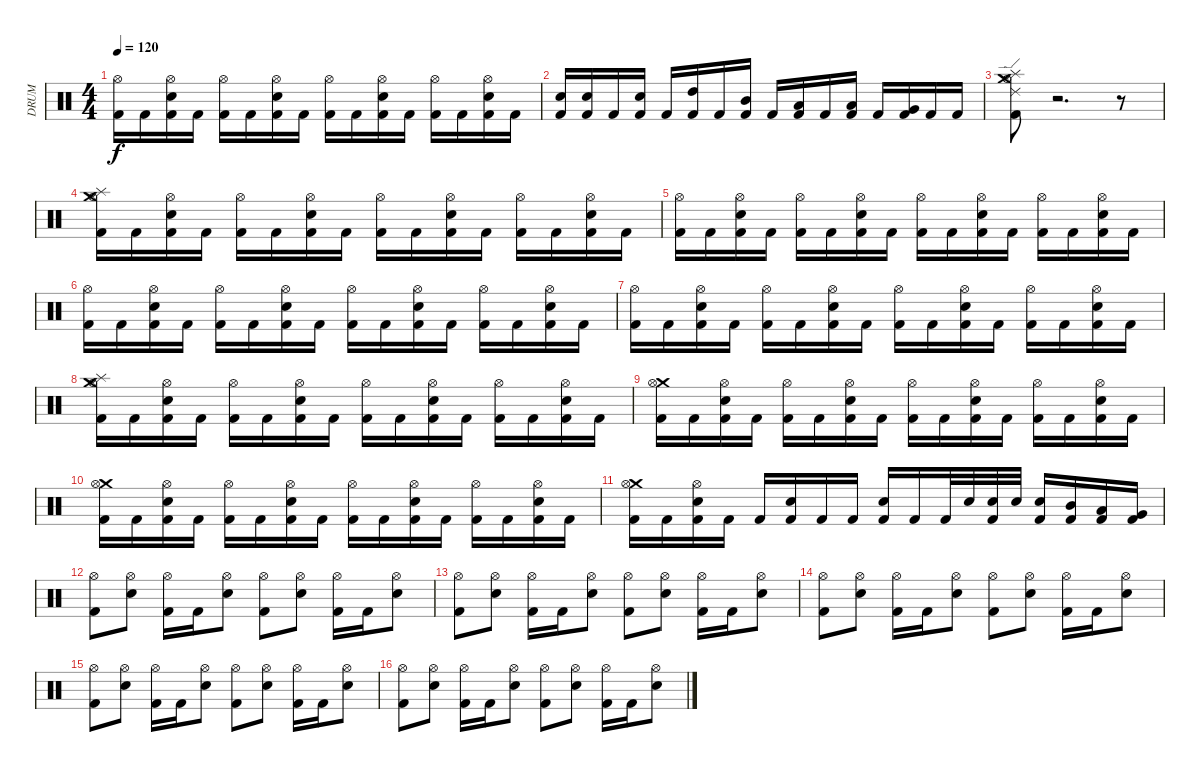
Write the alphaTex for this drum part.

\track (" DRUM" " DRUM") {instrument percussion}
\staff {score}
\articulation defaults
\ts (4 4)
\tempo 120
\clef neutral
\ks c
("Hi-Hat (open)" "Kick (hit) 2").16{dy f} "Kick (hit) 2".16 ("Hi-Hat (open)" "Electric Snare (hit)" "Kick (hit) 2").16 "Kick (hit) 2".16 ("Hi-Hat (open)" "Kick (hit) 2").16 "Kick (hit) 2".16 ("Hi-Hat (open)" "Electric Snare (hit)" "Kick (hit) 2").16 "Kick (hit) 2".16 ("Hi-Hat (open)" "Kick (hit) 2").16 "Kick (hit) 2".16 ("Hi-Hat (open)" "Electric Snare (hit)" "Kick (hit) 2").16 "Kick (hit) 2".16 ("Hi-Hat (open)" "Kick (hit) 2").16 "Kick (hit) 2".16 ("Hi-Hat (open)" "Electric Snare (hit)" "Kick (hit) 2").16 "Kick (hit) 2".16 |
("Electric Snare (hit)" "Kick (hit) 2").16 ("Electric Snare (hit)" "Kick (hit) 2").16 "Kick (hit) 2".16 ("Electric Snare (hit)" "Kick (hit) 2").16 "Kick (hit) 2".16 ("High Tom (hit)" "Kick (hit) 2").16 "Kick (hit) 2".16 ("Mid Tom (hit)" "Kick (hit) 2").16 "Kick (hit) 2".16 ("Low Tom (hit)" "Kick (hit) 2").16 "Kick (hit) 2".16 ("Low Tom (hit)" "Kick (hit) 2").16 "Kick (hit) 2".16 ("Very Low Tom (hit)" "Kick (hit) 2").16 "Kick (hit) 2".16 "Kick (hit) 2".16 |
("Hi-Hat (open)" "Ride (edge) 2" "Crash medium (hit)" "Splash (hit)" "Kick (hit) 2").8 r.2{d} r.8 |
("Hi-Hat (open)" "Splash (hit)" "Crash medium (hit)" "Kick (hit) 2").16 "Kick (hit) 2".16 ("Hi-Hat (open)" "Electric Snare (hit)" "Kick (hit) 2").16 "Kick (hit) 2".16 ("Hi-Hat (open)" "Kick (hit) 2").16 "Kick (hit) 2".16 ("Hi-Hat (open)" "Electric Snare (hit)" "Kick (hit) 2").16 "Kick (hit) 2".16 ("Hi-Hat (open)" "Kick (hit) 2").16 "Kick (hit) 2".16 ("Hi-Hat (open)" "Electric Snare (hit)" "Kick (hit) 2").16 "Kick (hit) 2".16 ("Hi-Hat (open)" "Kick (hit) 2").16 "Kick (hit) 2".16 ("Hi-Hat (open)" "Electric Snare (hit)" "Kick (hit) 2").16 "Kick (hit) 2".16 |
("Hi-Hat (open)" "Kick (hit) 2").16 "Kick (hit) 2".16 ("Hi-Hat (open)" "Electric Snare (hit)" "Kick (hit) 2").16 "Kick (hit) 2".16 ("Hi-Hat (open)" "Kick (hit) 2").16 "Kick (hit) 2".16 ("Hi-Hat (open)" "Electric Snare (hit)" "Kick (hit) 2").16 "Kick (hit) 2".16 ("Hi-Hat (open)" "Kick (hit) 2").16 "Kick (hit) 2".16 ("Hi-Hat (open)" "Electric Snare (hit)" "Kick (hit) 2").16 "Kick (hit) 2".16 ("Hi-Hat (open)" "Kick (hit) 2").16 "Kick (hit) 2".16 ("Hi-Hat (open)" "Electric Snare (hit)" "Kick (hit) 2").16 "Kick (hit) 2".16 |
("Hi-Hat (open)" "Kick (hit) 2").16 "Kick (hit) 2".16 ("Hi-Hat (open)" "Electric Snare (hit)" "Kick (hit) 2").16 "Kick (hit) 2".16 ("Hi-Hat (open)" "Kick (hit) 2").16 "Kick (hit) 2".16 ("Hi-Hat (open)" "Electric Snare (hit)" "Kick (hit) 2").16 "Kick (hit) 2".16 ("Hi-Hat (open)" "Kick (hit) 2").16 "Kick (hit) 2".16 ("Hi-Hat (open)" "Electric Snare (hit)" "Kick (hit) 2").16 "Kick (hit) 2".16 ("Hi-Hat (open)" "Kick (hit) 2").16 "Kick (hit) 2".16 ("Hi-Hat (open)" "Electric Snare (hit)" "Kick (hit) 2").16 "Kick (hit) 2".16 |
("Hi-Hat (open)" "Kick (hit) 2").16 "Kick (hit) 2".16 ("Hi-Hat (open)" "Electric Snare (hit)" "Kick (hit) 2").16 "Kick (hit) 2".16 ("Hi-Hat (open)" "Kick (hit) 2").16 "Kick (hit) 2".16 ("Hi-Hat (open)" "Electric Snare (hit)" "Kick (hit) 2").16 "Kick (hit) 2".16 ("Hi-Hat (open)" "Kick (hit) 2").16 "Kick (hit) 2".16 ("Hi-Hat (open)" "Electric Snare (hit)" "Kick (hit) 2").16 "Kick (hit) 2".16 ("Hi-Hat (open)" "Kick (hit) 2").16 "Kick (hit) 2".16 ("Hi-Hat (open)" "Electric Snare (hit)" "Kick (hit) 2").16 "Kick (hit) 2".16 |
("Hi-Hat (open)" "Splash (hit)" "Crash medium (hit)" "Kick (hit) 2").16 "Kick (hit) 2".16 ("Hi-Hat (open)" "Electric Snare (hit)" "Kick (hit) 2").16 "Kick (hit) 2".16 ("Hi-Hat (open)" "Kick (hit) 2").16 "Kick (hit) 2".16 ("Hi-Hat (open)" "Electric Snare (hit)" "Kick (hit) 2").16 "Kick (hit) 2".16 ("Hi-Hat (open)" "Kick (hit) 2").16 "Kick (hit) 2".16 ("Hi-Hat (open)" "Electric Snare (hit)" "Kick (hit) 2").16 "Kick (hit) 2".16 ("Hi-Hat (open)" "Kick (hit) 2").16 "Kick (hit) 2".16 ("Hi-Hat (open)" "Electric Snare (hit)" "Kick (hit) 2").16 "Kick (hit) 2".16 |
("Crash medium (hit)" "Hi-Hat (open)" "Kick (hit) 2").16 "Kick (hit) 2".16 ("Hi-Hat (open)" "Electric Snare (hit)" "Kick (hit) 2").16 "Kick (hit) 2".16 ("Hi-Hat (open)" "Kick (hit) 2").16 "Kick (hit) 2".16 ("Hi-Hat (open)" "Electric Snare (hit)" "Kick (hit) 2").16 "Kick (hit) 2".16 ("Hi-Hat (open)" "Kick (hit) 2").16 "Kick (hit) 2".16 ("Hi-Hat (open)" "Electric Snare (hit)" "Kick (hit) 2").16 "Kick (hit) 2".16 ("Hi-Hat (open)" "Kick (hit) 2").16 "Kick (hit) 2".16 ("Hi-Hat (open)" "Electric Snare (hit)" "Kick (hit) 2").16 "Kick (hit) 2".16 |
("Crash medium (hit)" "Hi-Hat (open)" "Kick (hit) 2").16 "Kick (hit) 2".16 ("Hi-Hat (open)" "Electric Snare (hit)" "Kick (hit) 2").16 "Kick (hit) 2".16 ("Hi-Hat (open)" "Kick (hit) 2").16 "Kick (hit) 2".16 ("Hi-Hat (open)" "Electric Snare (hit)" "Kick (hit) 2").16 "Kick (hit) 2".16 ("Hi-Hat (open)" "Kick (hit) 2").16 "Kick (hit) 2".16 ("Hi-Hat (open)" "Electric Snare (hit)" "Kick (hit) 2").16 "Kick (hit) 2".16 ("Hi-Hat (open)" "Kick (hit) 2").16 "Kick (hit) 2".16 ("Hi-Hat (open)" "Electric Snare (hit)" "Kick (hit) 2").16 "Kick (hit) 2".16 |
("Crash medium (hit)" "Hi-Hat (open)" "Kick (hit) 2").16 "Kick (hit) 2".16 ("Hi-Hat (open)" "Electric Snare (hit)" "Kick (hit) 2").16 "Kick (hit) 2".16 "Kick (hit) 2".16 ("Electric Snare (hit)" "Kick (hit) 2").16 "Kick (hit) 2".16 "Kick (hit) 2".16 ("Electric Snare (hit)" "Kick (hit) 2").16 "Kick (hit) 2".16 "Kick (hit) 2".32 "Electric Snare (hit)".32 ("Electric Snare (hit)" "Kick (hit) 2").32 "Electric Snare (hit)".32 ("Electric Snare (hit)" "Kick (hit) 2").16 ("Mid Tom (hit)" "Kick (hit) 2").16 ("Low Tom (hit)" "Kick (hit) 2").16 ("Very Low Tom (hit)" "Kick (hit) 2").16 |
("Hi-Hat (open)" "Kick (hit) 2").8 ("Hi-Hat (open)" "Electric Snare (hit)").8 ("Hi-Hat (open)" "Kick (hit) 2").16 "Kick (hit) 2".16 ("Hi-Hat (open)" "Electric Snare (hit)").8 ("Hi-Hat (open)" "Kick (hit) 2").8 ("Hi-Hat (open)" "Electric Snare (hit)").8 ("Hi-Hat (open)" "Kick (hit) 2").16 "Kick (hit) 2".16 ("Hi-Hat (open)" "Electric Snare (hit)").8 |
("Hi-Hat (open)" "Kick (hit) 2").8 ("Hi-Hat (open)" "Electric Snare (hit)").8 ("Hi-Hat (open)" "Kick (hit) 2").16 "Kick (hit) 2".16 ("Hi-Hat (open)" "Electric Snare (hit)").8 ("Hi-Hat (open)" "Kick (hit) 2").8 ("Hi-Hat (open)" "Electric Snare (hit)").8 ("Hi-Hat (open)" "Kick (hit) 2").16 "Kick (hit) 2".16 ("Hi-Hat (open)" "Electric Snare (hit)").8 |
("Hi-Hat (open)" "Kick (hit) 2").8 ("Hi-Hat (open)" "Electric Snare (hit)").8 ("Hi-Hat (open)" "Kick (hit) 2").16 "Kick (hit) 2".16 ("Hi-Hat (open)" "Electric Snare (hit)").8 ("Hi-Hat (open)" "Kick (hit) 2").8 ("Hi-Hat (open)" "Electric Snare (hit)").8 ("Hi-Hat (open)" "Kick (hit) 2").16 "Kick (hit) 2".16 ("Hi-Hat (open)" "Electric Snare (hit)").8 |
("Hi-Hat (open)" "Kick (hit) 2").8 ("Hi-Hat (open)" "Electric Snare (hit)").8 ("Hi-Hat (open)" "Kick (hit) 2").16 "Kick (hit) 2".16 ("Hi-Hat (open)" "Electric Snare (hit)").8 ("Hi-Hat (open)" "Kick (hit) 2").8 ("Hi-Hat (open)" "Electric Snare (hit)").8 ("Hi-Hat (open)" "Kick (hit) 2").16 "Kick (hit) 2".16 ("Hi-Hat (open)" "Electric Snare (hit)").8 |
("Hi-Hat (open)" "Kick (hit) 2").8 ("Hi-Hat (open)" "Electric Snare (hit)").8 ("Hi-Hat (open)" "Kick (hit) 2").16 "Kick (hit) 2".16 ("Hi-Hat (open)" "Electric Snare (hit)").8 ("Hi-Hat (open)" "Kick (hit) 2").8 ("Hi-Hat (open)" "Electric Snare (hit)").8 ("Hi-Hat (open)" "Kick (hit) 2").16 "Kick (hit) 2".16 ("Hi-Hat (open)" "Electric Snare (hit)").8
